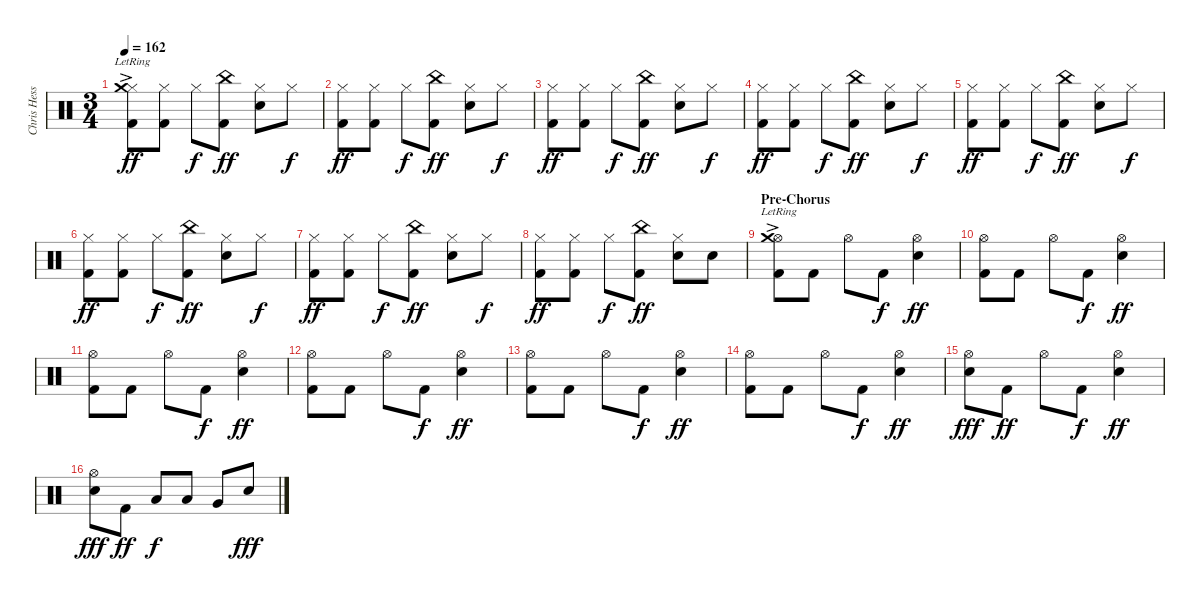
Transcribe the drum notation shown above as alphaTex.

\track ("Chris Hesse" "Chris Hess") {instrument percussion}
\staff {score}
\articulation defaults
\ts (3 4)
\tempo 162
\clef neutral
\ks c
("Hi-Hat (closed)" "Crash medium (hit)"{ac lr} "Kick (hit) 2").8{dy ff} ("Hi-Hat (closed)" "Kick (hit) 2").8 "Hi-Hat (closed)".8{dy f} ("China (hit)" "Kick (hit) 2").8{dy ff} ("Hi-Hat (closed)" "Snare (hit) 2").8 "Hi-Hat (closed)".8{dy f} |
("Hi-Hat (closed)" "Kick (hit) 2").8{dy ff} ("Hi-Hat (closed)" "Kick (hit) 2").8 "Hi-Hat (closed)".8{dy f} ("China (hit)" "Kick (hit) 2").8{dy ff} ("Hi-Hat (closed)" "Snare (hit) 2").8 "Hi-Hat (closed)".8{dy f} |
("Hi-Hat (closed)" "Kick (hit) 2").8{dy ff} ("Hi-Hat (closed)" "Kick (hit) 2").8 "Hi-Hat (closed)".8{dy f} ("China (hit)" "Kick (hit) 2").8{dy ff} ("Hi-Hat (closed)" "Snare (hit) 2").8 "Hi-Hat (closed)".8{dy f} |
("Hi-Hat (closed)" "Kick (hit) 2").8{dy ff} ("Hi-Hat (closed)" "Kick (hit) 2").8 "Hi-Hat (closed)".8{dy f} ("China (hit)" "Kick (hit) 2").8{dy ff} ("Hi-Hat (closed)" "Snare (hit) 2").8 "Hi-Hat (closed)".8{dy f} |
("Hi-Hat (closed)" "Kick (hit) 2").8{dy ff} ("Hi-Hat (closed)" "Kick (hit) 2").8 "Hi-Hat (closed)".8{dy f} ("China (hit)" "Kick (hit) 2").8{dy ff} ("Hi-Hat (closed)" "Snare (hit) 2").8 "Hi-Hat (closed)".8{dy f} |
("Hi-Hat (closed)" "Kick (hit) 2").8{dy ff} ("Hi-Hat (closed)" "Kick (hit) 2").8 "Hi-Hat (closed)".8{dy f} ("China (hit)" "Kick (hit) 2").8{dy ff} ("Hi-Hat (closed)" "Snare (hit) 2").8 "Hi-Hat (closed)".8{dy f} |
("Hi-Hat (closed)" "Kick (hit) 2").8{dy ff} ("Hi-Hat (closed)" "Kick (hit) 2").8 "Hi-Hat (closed)".8{dy f} ("China (hit)" "Kick (hit) 2").8{dy ff} ("Hi-Hat (closed)" "Snare (hit) 2").8 "Hi-Hat (closed)".8{dy f} |
("Hi-Hat (closed)" "Kick (hit) 2").8{dy ff} ("Hi-Hat (closed)" "Kick (hit) 2").8 "Hi-Hat (closed)".8{dy f} ("China (hit)" "Kick (hit) 2").8{dy ff} ("Hi-Hat (closed)" "Snare (hit) 2").8 "Snare (hit) 2".8 |
\section ("" "Pre-Chorus")
("Hi-Hat (open)" "Crash medium (hit)"{ac lr} "Kick (hit) 2").8 "Kick (hit) 2".8 "Hi-Hat (open)".8 "Kick (hit) 2".8{dy f} ("Hi-Hat (open)" "Snare (hit) 2").4{dy ff} |
("Hi-Hat (open)" "Kick (hit) 2").8 "Kick (hit) 2".8 "Hi-Hat (open)".8 "Kick (hit) 2".8{dy f} ("Hi-Hat (open)" "Snare (hit) 2").4{dy ff} |
("Hi-Hat (open)" "Kick (hit) 2").8 "Kick (hit) 2".8 "Hi-Hat (open)".8 "Kick (hit) 2".8{dy f} ("Hi-Hat (open)" "Snare (hit) 2").4{dy ff} |
("Hi-Hat (open)" "Kick (hit) 2").8 "Kick (hit) 2".8 "Hi-Hat (open)".8 "Kick (hit) 2".8{dy f} ("Hi-Hat (open)" "Snare (hit) 2").4{dy ff} |
("Hi-Hat (open)" "Kick (hit) 2").8 "Kick (hit) 2".8 "Hi-Hat (open)".8 "Kick (hit) 2".8{dy f} ("Hi-Hat (open)" "Snare (hit) 2").4{dy ff} |
("Hi-Hat (open)" "Kick (hit) 2").8 "Kick (hit) 2".8 "Hi-Hat (open)".8 "Kick (hit) 2".8{dy f} ("Hi-Hat (open)" "Snare (hit) 2").4{dy ff} |
("Hi-Hat (open)" "Snare (hit) 2").8{dy fff} "Kick (hit) 2".8{dy ff} "Hi-Hat (open)".8 "Kick (hit) 2".8{dy f} ("Hi-Hat (open)" "Snare (hit) 2").4{dy ff} |
("Hi-Hat (open)" "Snare (hit) 2").8{dy fff} "Kick (hit) 2".8{dy ff} "Low Floor Tom (hit)".8{dy f} "Low Tom (hit)".8 "Very Low Tom (hit)".8 "Snare (hit) 2".8{dy fff}
